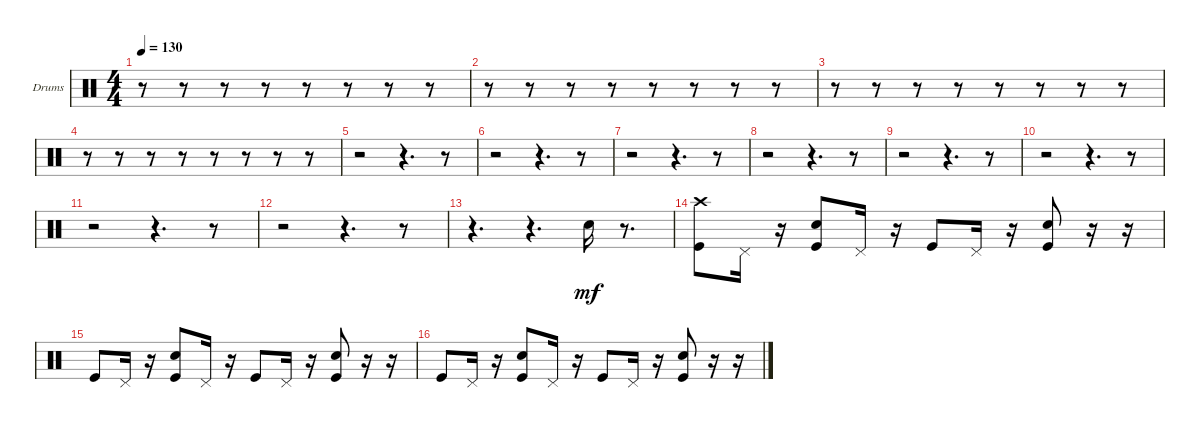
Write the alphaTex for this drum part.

\bracketExtendMode groupsimilarinstruments
\firstSystemTrackNameOrientation horizontal
\otherSystemsTrackNameOrientation horizontal
\track ("MIDI Drums" "Drums") {instrument percussion}
\staff {score}
\articulation defaults
\ts (4 4)
\tempo 130
\clef neutral
\ks c
r.8{dy mf} r.8 r.8 r.8 r.8 r.8 r.8 r.8 |
r.8 r.8 r.8 r.8 r.8 r.8 r.8 r.8 |
r.8 r.8 r.8 r.8 r.8 r.8 r.8 r.8 |
r.8 r.8 r.8 r.8 r.8 r.8 r.8 r.8 |
r.2 r.4{d} r.8 |
r.2 r.4{d} r.8 |
r.2 r.4{d} r.8 |
r.2 r.4{d} r.8 |
r.2 r.4{d} r.8 |
r.2 r.4{d} r.8 |
r.2 r.4{d} r.8 |
r.2 r.4{d} r.8 |
r.4{d} r.4{d} "Snare (hit) 2".16 r.8{d} |
("Crash high (hit)" "Kick (hit)").8 "Pedal Hi-Hat (hit)".16 r.16 ("Snare (hit) 2" "Kick (hit)").8 "Pedal Hi-Hat (hit)".16 r.16 "Kick (hit)".8 "Pedal Hi-Hat (hit)".16 r.16 ("Kick (hit)" "Snare (hit) 2").8 r.16 r.16 |
"Kick (hit)".8 "Pedal Hi-Hat (hit)".16 r.16 ("Snare (hit) 2" "Kick (hit)").8 "Pedal Hi-Hat (hit)".16 r.16 "Kick (hit)".8 "Pedal Hi-Hat (hit)".16 r.16 ("Snare (hit) 2" "Kick (hit)").8 r.16 r.16 |
"Kick (hit)".8 "Pedal Hi-Hat (hit)".16 r.16 ("Snare (hit) 2" "Kick (hit)").8 "Pedal Hi-Hat (hit)".16 r.16 "Kick (hit)".8 "Pedal Hi-Hat (hit)".16 r.16 ("Snare (hit) 2" "Kick (hit)").8 r.16 r.16
